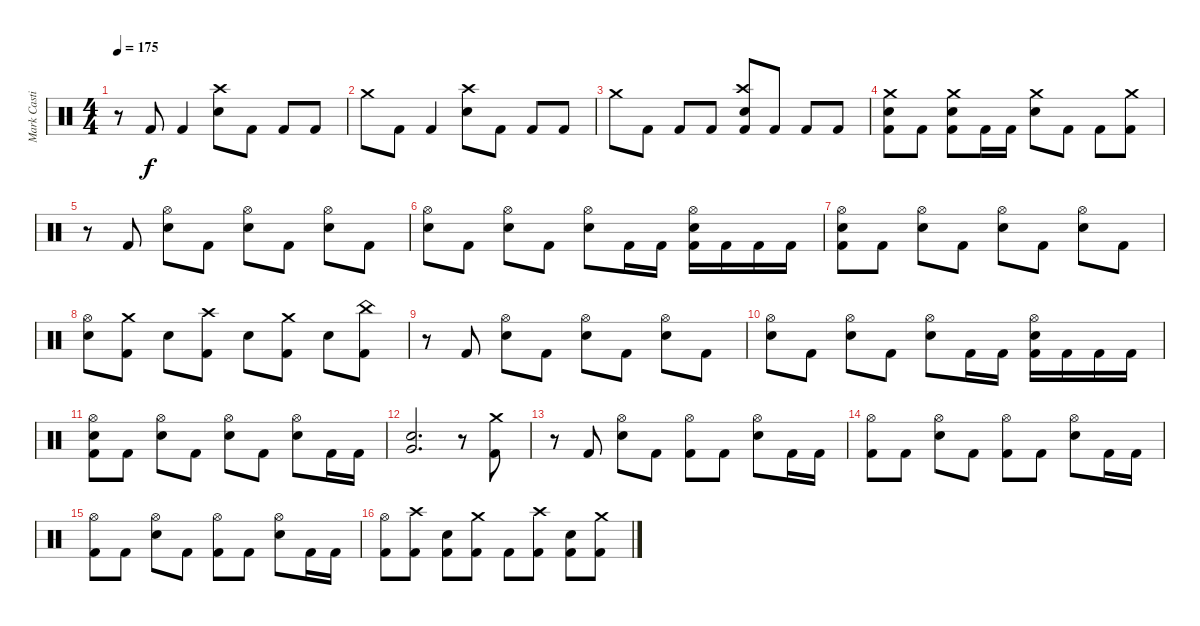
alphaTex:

\track ("Mark Castillo" "Mark Casti") {instrument percussion}
\staff {score}
\articulation defaults
\ts (4 4)
\tempo 175
\clef neutral
\ks c
r.8{dy f} "Kick (hit) 2".8 "Kick (hit) 2".4 ("Crash high (hit)" "Electric Snare (hit)").8 "Kick (hit) 2".8 "Kick (hit) 2".8 "Kick (hit) 2".8 |
"Crash medium (hit)".8 "Kick (hit) 2".8 "Kick (hit) 2".4 ("Crash high (hit)" "Electric Snare (hit)").8 "Kick (hit) 2".8 "Kick (hit) 2".8 "Kick (hit) 2".8 |
"Crash medium (hit)".8 "Kick (hit) 2".8 "Kick (hit) 2".8 "Kick (hit) 2".8 ("Crash high (hit)" "Electric Snare (hit)" "Kick (hit) 2").8 "Kick (hit) 2".8 "Kick (hit) 2".8 "Kick (hit) 2".8 |
("Crash medium (hit)" "Electric Snare (hit)" "Kick (hit) 2").8 "Kick (hit) 2".8 ("Crash medium (hit)" "Electric Snare (hit)" "Kick (hit) 2").8 "Kick (hit) 2".16 "Kick (hit) 2".16 ("Crash medium (hit)" "Electric Snare (hit)").8 "Kick (hit) 2".8 "Kick (hit) 2".8 ("Crash medium (hit)" "Kick (hit) 2").8 |
r.8 "Kick (hit) 2".8 ("Hi-Hat (open)" "Electric Snare (hit)").8 "Kick (hit) 2".8 ("Hi-Hat (open)" "Electric Snare (hit)").8 "Kick (hit) 2".8 ("Hi-Hat (open)" "Electric Snare (hit)").8 "Kick (hit) 2".8 |
("Hi-Hat (open)" "Electric Snare (hit)").8 "Kick (hit) 2".8 ("Hi-Hat (open)" "Electric Snare (hit)").8 "Kick (hit) 2".8 ("Hi-Hat (open)" "Electric Snare (hit)").8 "Kick (hit) 2".16 "Kick (hit) 2".16 ("Hi-Hat (open)" "Electric Snare (hit)" "Kick (hit) 2").16 "Kick (hit) 2".16 "Kick (hit) 2".16 "Kick (hit) 2".16 |
("Hi-Hat (open)" "Electric Snare (hit)" "Kick (hit) 2").8 "Kick (hit) 2".8 ("Hi-Hat (open)" "Electric Snare (hit)").8 "Kick (hit) 2".8 ("Hi-Hat (open)" "Electric Snare (hit)").8 "Kick (hit) 2".8 ("Hi-Hat (open)" "Electric Snare (hit)").8 "Kick (hit) 2".8 |
("Hi-Hat (open)" "Electric Snare (hit)").8 ("Crash medium (hit)" "Kick (hit) 2").8 "Electric Snare (hit)".8 ("Crash high (hit)" "Kick (hit) 2").8 "Electric Snare (hit)".8 ("Crash medium (hit)" "Kick (hit) 2").8 "Electric Snare (hit)".8 ("China (hit)" "Kick (hit) 2").8 |
r.8 "Kick (hit) 2".8 ("Hi-Hat (open)" "Electric Snare (hit)").8 "Kick (hit) 2".8 ("Hi-Hat (open)" "Electric Snare (hit)").8 "Kick (hit) 2".8 ("Hi-Hat (open)" "Electric Snare (hit)").8 "Kick (hit) 2".8 |
("Hi-Hat (open)" "Electric Snare (hit)").8 "Kick (hit) 2".8 ("Hi-Hat (open)" "Electric Snare (hit)").8 "Kick (hit) 2".8 ("Hi-Hat (open)" "Electric Snare (hit)").8 "Kick (hit) 2".16 "Kick (hit) 2".16 ("Hi-Hat (open)" "Electric Snare (hit)" "Kick (hit) 2").16 "Kick (hit) 2".16 "Kick (hit) 2".16 "Kick (hit) 2".16 |
("Hi-Hat (open)" "Electric Snare (hit)" "Kick (hit) 2").8 "Kick (hit) 2".8 ("Hi-Hat (open)" "Electric Snare (hit)").8 "Kick (hit) 2".8 ("Hi-Hat (open)" "Electric Snare (hit)").8 "Kick (hit) 2".8 ("Hi-Hat (open)" "Electric Snare (hit)").8 "Kick (hit) 2".16 "Kick (hit) 2".16 |
("Very Low Tom (hit)" "Electric Snare (hit)").2{d} r.8 ("Crash medium (hit)" "Kick (hit) 2").8 |
r.8 "Kick (hit) 2".8 ("Hi-Hat (open)" "Electric Snare (hit)").8 "Kick (hit) 2".8 ("Hi-Hat (open)" "Kick (hit) 2").8 "Kick (hit) 2".8 ("Hi-Hat (open)" "Electric Snare (hit)").8 "Kick (hit) 2".16 "Kick (hit) 2".16 |
("Hi-Hat (open)" "Kick (hit) 2").8 "Kick (hit) 2".8 ("Hi-Hat (open)" "Electric Snare (hit)").8 "Kick (hit) 2".8 ("Hi-Hat (open)" "Kick (hit) 2").8 "Kick (hit) 2".8 ("Hi-Hat (open)" "Electric Snare (hit)").8 "Kick (hit) 2".16 "Kick (hit) 2".16 |
("Hi-Hat (open)" "Kick (hit) 2").8 "Kick (hit) 2".8 ("Hi-Hat (open)" "Electric Snare (hit)").8 "Kick (hit) 2".8 ("Hi-Hat (open)" "Kick (hit) 2").8 "Kick (hit) 2".8 ("Hi-Hat (open)" "Electric Snare (hit)").8 "Kick (hit) 2".16 "Kick (hit) 2".16 |
("Hi-Hat (open)" "Kick (hit) 2").8 ("Crash high (hit)" "Kick (hit) 2").8 ("Electric Snare (hit)" "Kick (hit) 2").8 ("Crash medium (hit)" "Kick (hit) 2").8 "Kick (hit) 2".8 ("Crash high (hit)" "Kick (hit) 2").8 ("Electric Snare (hit)" "Kick (hit) 2").8 ("Crash medium (hit)" "Kick (hit) 2").8
